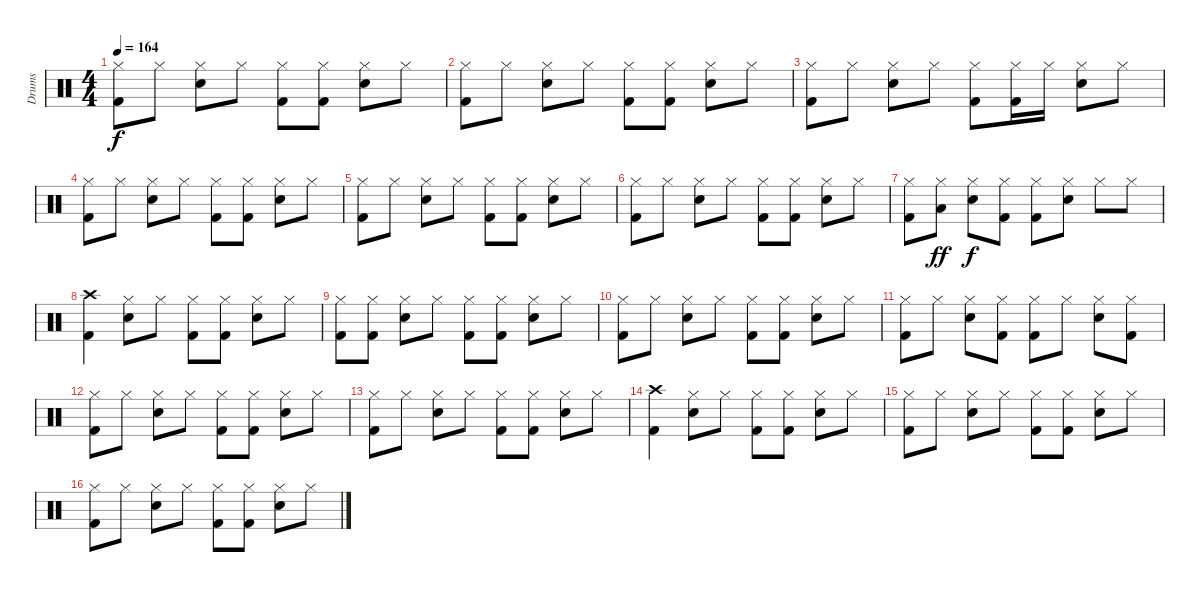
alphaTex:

\track ("Drums" "Drums") {instrument percussion}
\staff {score}
\articulation defaults
\ts (4 4)
\tempo 164
\clef neutral
\ks c
("Hi-Hat (closed)" "Kick (hit) 2").8{dy f} "Hi-Hat (closed)".8 ("Hi-Hat (closed)" "Snare (hit) 2").8 "Hi-Hat (closed)".8 ("Hi-Hat (closed)" "Kick (hit) 2").8 ("Hi-Hat (closed)" "Kick (hit) 2").8 ("Hi-Hat (closed)" "Snare (hit) 2").8 "Hi-Hat (closed)".8 |
("Hi-Hat (closed)" "Kick (hit) 2").8 "Hi-Hat (closed)".8 ("Hi-Hat (closed)" "Snare (hit) 2").8 "Hi-Hat (closed)".8 ("Hi-Hat (closed)" "Kick (hit) 2").8 ("Hi-Hat (closed)" "Kick (hit) 2").8 ("Hi-Hat (closed)" "Snare (hit) 2").8 "Hi-Hat (closed)".8 |
("Hi-Hat (closed)" "Kick (hit) 2").8 "Hi-Hat (closed)".8 ("Hi-Hat (closed)" "Snare (hit) 2").8 "Hi-Hat (closed)".8 ("Hi-Hat (closed)" "Kick (hit) 2").8 ("Hi-Hat (closed)" "Kick (hit) 2").16 "Hi-Hat (closed)".16 ("Hi-Hat (closed)" "Snare (hit) 2").8 "Hi-Hat (closed)".8 |
("Hi-Hat (closed)" "Kick (hit) 2").8 "Hi-Hat (closed)".8 ("Hi-Hat (closed)" "Snare (hit) 2").8 "Hi-Hat (closed)".8 ("Hi-Hat (closed)" "Kick (hit) 2").8 ("Hi-Hat (closed)" "Kick (hit) 2").8 ("Hi-Hat (closed)" "Snare (hit) 2").8 "Hi-Hat (closed)".8 |
("Hi-Hat (closed)" "Kick (hit) 2").8 "Hi-Hat (closed)".8 ("Hi-Hat (closed)" "Snare (hit) 2").8 "Hi-Hat (closed)".8 ("Hi-Hat (closed)" "Kick (hit) 2").8 ("Hi-Hat (closed)" "Kick (hit) 2").8 ("Hi-Hat (closed)" "Snare (hit) 2").8 "Hi-Hat (closed)".8 |
("Hi-Hat (closed)" "Kick (hit) 2").8 "Hi-Hat (closed)".8 ("Hi-Hat (closed)" "Snare (hit) 2").8 "Hi-Hat (closed)".8 ("Hi-Hat (closed)" "Kick (hit) 2").8 ("Hi-Hat (closed)" "Kick (hit) 2").8 ("Hi-Hat (closed)" "Snare (hit) 2").8 "Hi-Hat (closed)".8 |
("Hi-Hat (closed)" "Kick (hit) 2").8 ("Hi-Hat (closed)" "Low Floor Tom (hit)").8{dy ff} ("Hi-Hat (closed)" "Snare (hit) 2").8{dy f} ("Hi-Hat (closed)" "Kick (hit) 2").8 ("Hi-Hat (closed)" "Kick (hit) 2").8 ("Hi-Hat (closed)" "Snare (hit) 2").8 "Hi-Hat (closed)".8 "Hi-Hat (closed)".8 |
("Crash high (hit)" "Kick (hit) 2").4 ("Hi-Hat (closed)" "Snare (hit) 2").8 "Hi-Hat (closed)".8 ("Hi-Hat (closed)" "Kick (hit) 2").8 ("Hi-Hat (closed)" "Kick (hit) 2").8 ("Hi-Hat (closed)" "Snare (hit) 2").8 "Hi-Hat (closed)".8 |
("Hi-Hat (closed)" "Kick (hit) 2").8 ("Hi-Hat (closed)" "Kick (hit) 2").8 ("Hi-Hat (closed)" "Snare (hit) 2").8 "Hi-Hat (closed)".8 ("Hi-Hat (closed)" "Kick (hit) 2").8 ("Hi-Hat (closed)" "Kick (hit) 2").8 ("Hi-Hat (closed)" "Snare (hit) 2").8 "Hi-Hat (closed)".8 |
("Hi-Hat (closed)" "Kick (hit) 2").8 "Hi-Hat (closed)".8 ("Hi-Hat (closed)" "Snare (hit) 2").8 "Hi-Hat (closed)".8 ("Hi-Hat (closed)" "Kick (hit) 2").8 ("Hi-Hat (closed)" "Kick (hit) 2").8 ("Hi-Hat (closed)" "Snare (hit) 2").8 "Hi-Hat (closed)".8 |
("Hi-Hat (closed)" "Kick (hit) 2").8 "Hi-Hat (closed)".8 ("Hi-Hat (closed)" "Snare (hit) 2").8 ("Hi-Hat (closed)" "Kick (hit) 2").8 ("Hi-Hat (closed)" "Kick (hit) 2").8 "Hi-Hat (closed)".8 ("Hi-Hat (closed)" "Snare (hit) 2").8 ("Hi-Hat (closed)" "Kick (hit) 2").8 |
("Hi-Hat (closed)" "Kick (hit) 2").8 "Hi-Hat (closed)".8 ("Hi-Hat (closed)" "Snare (hit) 2").8 "Hi-Hat (closed)".8 ("Hi-Hat (closed)" "Kick (hit) 2").8 ("Hi-Hat (closed)" "Kick (hit) 2").8 ("Hi-Hat (closed)" "Snare (hit) 2").8 "Hi-Hat (closed)".8 |
("Hi-Hat (closed)" "Kick (hit) 2").8 "Hi-Hat (closed)".8 ("Hi-Hat (closed)" "Snare (hit) 2").8 "Hi-Hat (closed)".8 ("Hi-Hat (closed)" "Kick (hit) 2").8 ("Hi-Hat (closed)" "Kick (hit) 2").8 ("Hi-Hat (closed)" "Snare (hit) 2").8 "Hi-Hat (closed)".8 |
("Crash high (hit)" "Kick (hit) 2").4 ("Hi-Hat (closed)" "Snare (hit) 2").8 "Hi-Hat (closed)".8 ("Hi-Hat (closed)" "Kick (hit) 2").8 ("Hi-Hat (closed)" "Kick (hit) 2").8 ("Hi-Hat (closed)" "Snare (hit) 2").8 "Hi-Hat (closed)".8 |
("Hi-Hat (closed)" "Kick (hit) 2").8 "Hi-Hat (closed)".8 ("Hi-Hat (closed)" "Snare (hit) 2").8 "Hi-Hat (closed)".8 ("Hi-Hat (closed)" "Kick (hit) 2").8 ("Hi-Hat (closed)" "Kick (hit) 2").8 ("Hi-Hat (closed)" "Snare (hit) 2").8 "Hi-Hat (closed)".8 |
("Hi-Hat (closed)" "Kick (hit) 2").8 "Hi-Hat (closed)".8 ("Hi-Hat (closed)" "Snare (hit) 2").8 "Hi-Hat (closed)".8 ("Hi-Hat (closed)" "Kick (hit) 2").8 ("Hi-Hat (closed)" "Kick (hit) 2").8 ("Hi-Hat (closed)" "Snare (hit) 2").8 "Hi-Hat (closed)".8
